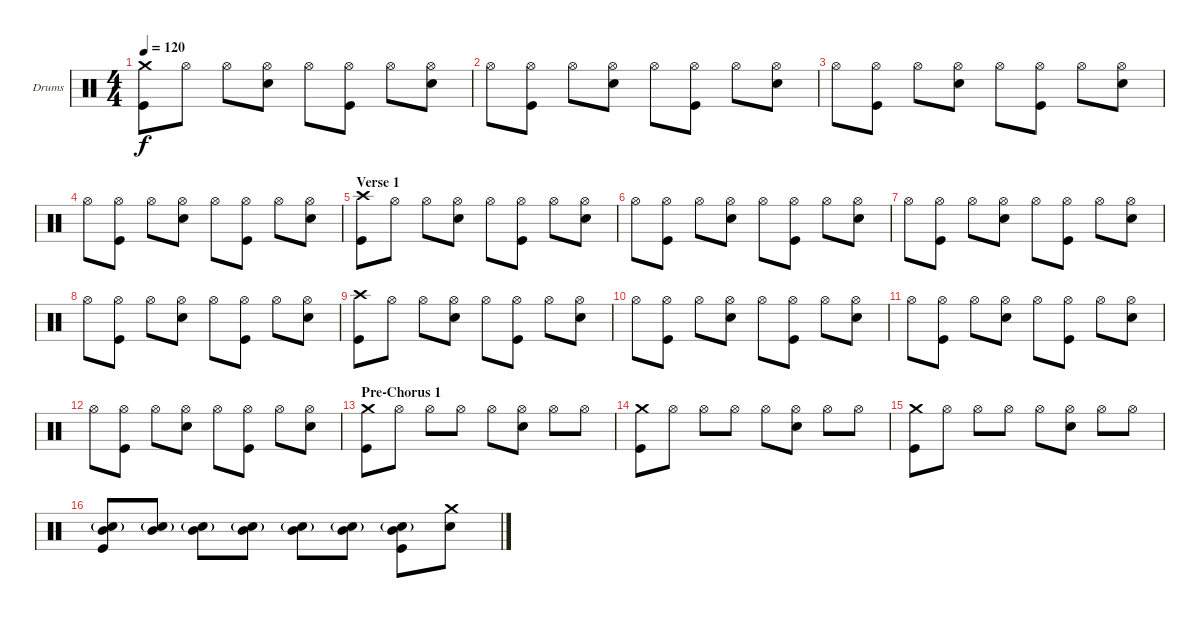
\bracketExtendMode groupsimilarinstruments
\firstSystemTrackNameOrientation horizontal
\otherSystemsTrackNameOrientation horizontal
\track ("Drumkit" "Drums") {instrument percussion}
\staff {score}
\articulation defaults
\ts (4 4)
\tempo 120
\clef neutral
\ks c
("Crash medium (hit)" "Kick (hit)").8{dy f} "Hi-Hat (open)".8 "Hi-Hat (open)".8 ("Hi-Hat (open)" "Snare (hit) 2").8 "Hi-Hat (open)".8 ("Hi-Hat (open)" "Kick (hit)").8 "Hi-Hat (open)".8 ("Hi-Hat (open)" "Snare (hit) 2").8 |
"Hi-Hat (open)".8 ("Hi-Hat (open)" "Kick (hit)").8 "Hi-Hat (open)".8 ("Hi-Hat (open)" "Snare (hit) 2").8 "Hi-Hat (open)".8 ("Hi-Hat (open)" "Kick (hit)").8 "Hi-Hat (open)".8 ("Hi-Hat (open)" "Snare (hit) 2").8 |
"Hi-Hat (open)".8 ("Hi-Hat (open)" "Kick (hit)").8 "Hi-Hat (open)".8 ("Hi-Hat (open)" "Snare (hit) 2").8 "Hi-Hat (open)".8 ("Hi-Hat (open)" "Kick (hit)").8 "Hi-Hat (open)".8 ("Hi-Hat (open)" "Snare (hit) 2").8 |
"Hi-Hat (open)".8 ("Hi-Hat (open)" "Kick (hit)").8 "Hi-Hat (open)".8 ("Hi-Hat (open)" "Snare (hit) 2").8 "Hi-Hat (open)".8 ("Hi-Hat (open)" "Kick (hit)").8 "Hi-Hat (open)".8 ("Hi-Hat (open)" "Snare (hit) 2").8 |
\section ("" "Verse 1")
("Crash high (hit)" "Kick (hit)").8 "Hi-Hat (open)".8 "Hi-Hat (open)".8 ("Hi-Hat (open)" "Snare (hit) 2").8 "Hi-Hat (open)".8 ("Hi-Hat (open)" "Kick (hit)").8 "Hi-Hat (open)".8 ("Hi-Hat (open)" "Snare (hit) 2").8 |
"Hi-Hat (open)".8 ("Hi-Hat (open)" "Kick (hit)").8 "Hi-Hat (open)".8 ("Hi-Hat (open)" "Snare (hit) 2").8 "Hi-Hat (open)".8 ("Hi-Hat (open)" "Kick (hit)").8 "Hi-Hat (open)".8 ("Hi-Hat (open)" "Snare (hit) 2").8 |
"Hi-Hat (open)".8 ("Hi-Hat (open)" "Kick (hit)").8 "Hi-Hat (open)".8 ("Hi-Hat (open)" "Snare (hit) 2").8 "Hi-Hat (open)".8 ("Hi-Hat (open)" "Kick (hit)").8 "Hi-Hat (open)".8 ("Hi-Hat (open)" "Snare (hit) 2").8 |
"Hi-Hat (open)".8 ("Hi-Hat (open)" "Kick (hit)").8 "Hi-Hat (open)".8 ("Hi-Hat (open)" "Snare (hit) 2").8 "Hi-Hat (open)".8 ("Hi-Hat (open)" "Kick (hit)").8 "Hi-Hat (open)".8 ("Hi-Hat (open)" "Snare (hit) 2").8 |
("Crash high (hit)" "Kick (hit)").8 "Hi-Hat (open)".8 "Hi-Hat (open)".8 ("Hi-Hat (open)" "Snare (hit) 2").8 "Hi-Hat (open)".8 ("Hi-Hat (open)" "Kick (hit)").8 "Hi-Hat (open)".8 ("Hi-Hat (open)" "Snare (hit) 2").8 |
"Hi-Hat (open)".8 ("Hi-Hat (open)" "Kick (hit)").8 "Hi-Hat (open)".8 ("Hi-Hat (open)" "Snare (hit) 2").8 "Hi-Hat (open)".8 ("Hi-Hat (open)" "Kick (hit)").8 "Hi-Hat (open)".8 ("Hi-Hat (open)" "Snare (hit) 2").8 |
"Hi-Hat (open)".8 ("Hi-Hat (open)" "Kick (hit)").8 "Hi-Hat (open)".8 ("Hi-Hat (open)" "Snare (hit) 2").8 "Hi-Hat (open)".8 ("Hi-Hat (open)" "Kick (hit)").8 "Hi-Hat (open)".8 ("Hi-Hat (open)" "Snare (hit) 2").8 |
"Hi-Hat (open)".8 ("Hi-Hat (open)" "Kick (hit)").8 "Hi-Hat (open)".8 ("Hi-Hat (open)" "Snare (hit) 2").8 "Hi-Hat (open)".8 ("Hi-Hat (open)" "Kick (hit)").8 "Hi-Hat (open)".8 ("Hi-Hat (open)" "Snare (hit) 2").8 |
\section ("" "Pre-Chorus 1")
("Crash medium (hit)" "Kick (hit)").8 "Hi-Hat (open)".8 "Hi-Hat (open)".8 "Hi-Hat (open)".8 "Hi-Hat (open)".8 ("Hi-Hat (open)" "Snare (hit) 2").8 "Hi-Hat (open)".8 "Hi-Hat (open)".8 |
("Crash medium (hit)" "Kick (hit)").8 "Hi-Hat (open)".8 "Hi-Hat (open)".8 "Hi-Hat (open)".8 "Hi-Hat (open)".8 ("Hi-Hat (open)" "Snare (hit) 2").8 "Hi-Hat (open)".8 "Hi-Hat (open)".8 |
("Crash medium (hit)" "Kick (hit)").8 "Hi-Hat (open)".8 "Hi-Hat (open)".8 "Hi-Hat (open)".8 "Hi-Hat (open)".8 ("Hi-Hat (open)" "Snare (hit) 2").8 "Hi-Hat (open)".8 "Hi-Hat (open)".8 |
("Snare (hit) 2"{g} "Mid Tom (hit)" "Kick (hit)").8 ("Snare (hit) 2"{g} "Mid Tom (hit)").8 ("Snare (hit) 2"{g} "Mid Tom (hit)").8 ("Snare (hit) 2"{g} "Mid Tom (hit)").8 ("Snare (hit) 2"{g} "Mid Tom (hit)").8 ("Snare (hit) 2"{g} "Mid Tom (hit)").8 ("Snare (hit) 2"{g} "Mid Tom (hit)" "Kick (hit)").8 ("Crash medium (hit)" "Snare (hit) 2").8
